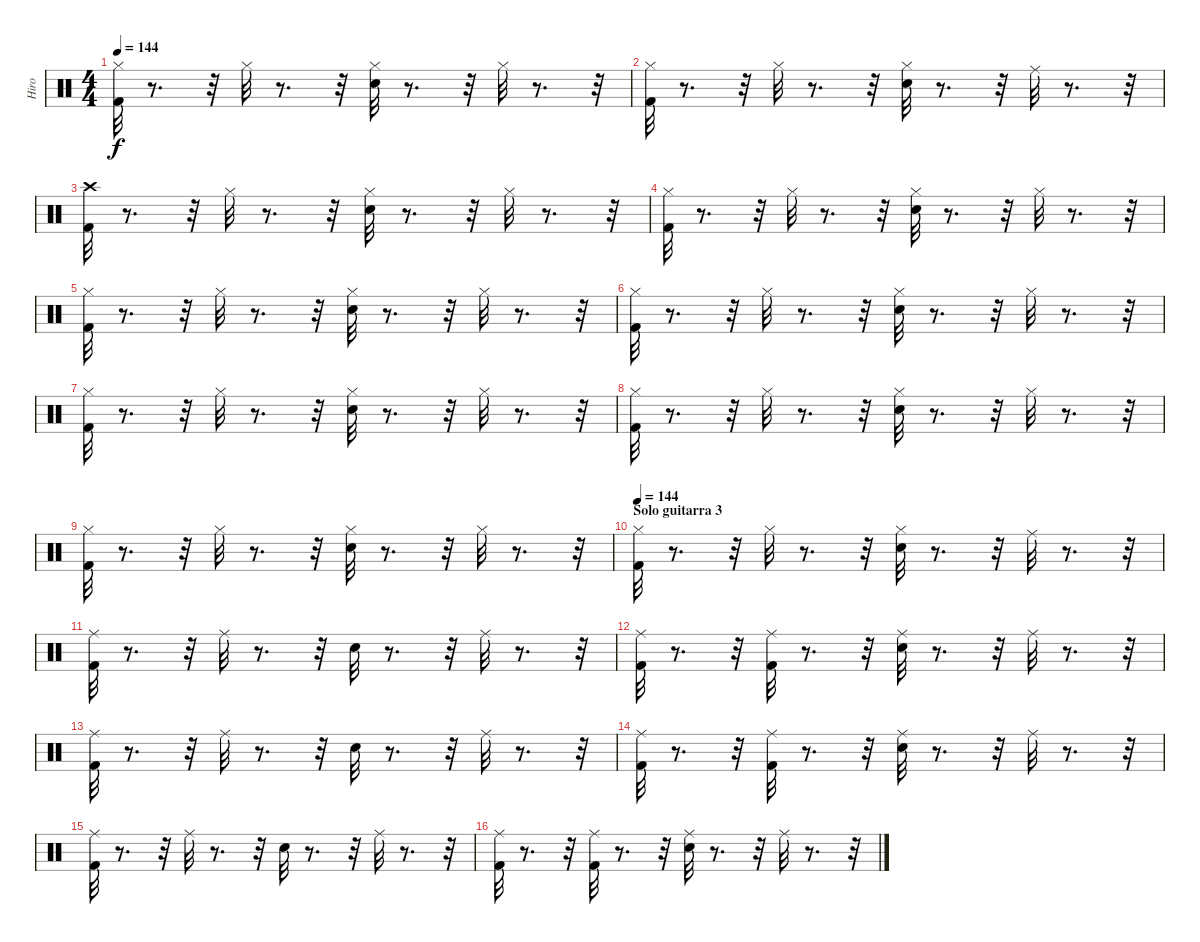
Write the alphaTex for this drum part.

\track ("Hiro" "Hiro") {instrument percussion}
\staff {score}
\articulation defaults
\ts (4 4)
\tempo 144
\clef neutral
\ks c
("Hi-Hat (closed)" "Kick (hit) 2").32{dy f} r.8{d} r.32 "Hi-Hat (closed)".32 r.8{d} r.32 ("Snare (hit) 2" "Hi-Hat (closed)").32 r.8{d} r.32 "Hi-Hat (closed)".32 r.8{d} r.32 |
("Kick (hit) 2" "Hi-Hat (closed)").32 r.8{d} r.32 "Hi-Hat (closed)".32 r.8{d} r.32 ("Snare (hit) 2" "Hi-Hat (closed)").32 r.8{d} r.32 "Ride (middle)".32 r.8{d} r.32 |
("Crash high (hit)" "Kick (hit) 2").32 r.8{d} r.32 "Hi-Hat (closed)".32 r.8{d} r.32 ("Snare (hit) 2" "Hi-Hat (closed)").32 r.8{d} r.32 "Hi-Hat (closed)".32 r.8{d} r.32 |
("Kick (hit) 2" "Hi-Hat (closed)").32 r.8{d} r.32 "Hi-Hat (closed)".32 r.8{d} r.32 ("Hi-Hat (closed)" "Snare (hit) 2").32 r.8{d} r.32 "Hi-Hat (closed)".32 r.8{d} r.32 |
("Hi-Hat (closed)" "Kick (hit) 2").32 r.8{d} r.32 "Hi-Hat (closed)".32 r.8{d} r.32 ("Snare (hit) 2" "Hi-Hat (closed)").32 r.8{d} r.32 "Hi-Hat (closed)".32 r.8{d} r.32 |
("Hi-Hat (closed)" "Kick (hit) 2").32 r.8{d} r.32 "Hi-Hat (closed)".32 r.8{d} r.32 ("Snare (hit) 2" "Hi-Hat (closed)").32 r.8{d} r.32 "Hi-Hat (closed)".32 r.8{d} r.32 |
("Kick (hit) 2" "Hi-Hat (closed)").32 r.8{d} r.32 "Hi-Hat (closed)".32 r.8{d} r.32 ("Hi-Hat (closed)" "Snare (hit) 2").32 r.8{d} r.32 "Hi-Hat (closed)".32 r.8{d} r.32 |
("Hi-Hat (closed)" "Kick (hit) 2").32 r.8{d} r.32 "Hi-Hat (closed)".32 r.8{d} r.32 ("Hi-Hat (closed)" "Snare (hit) 2").32 r.8{d} r.32 "Hi-Hat (closed)".32 r.8{d} r.32 |
("Hi-Hat (closed)" "Kick (hit) 2").32 r.8{d} r.32 "Hi-Hat (closed)".32 r.8{d} r.32 ("Snare (hit) 2" "Hi-Hat (closed)").32 r.8{d} r.32 "Hi-Hat (closed)".32 r.8{d} r.32 |
\section ("" "Solo guitarra 3")
\tempo 144
("Hi-Hat (closed)" "Kick (hit) 2").32 r.8{d} r.32 "Hi-Hat (closed)".32 r.8{d} r.32 ("Snare (hit) 2" "Hi-Hat (closed)").32 r.8{d} r.32 "Ride (middle)".32 r.8{d} r.32 |
("Kick (hit) 2" "Ride (middle)").32 r.8{d} r.32 "Ride (middle)".32 r.8{d} r.32 "Snare (hit) 2".32 r.8{d} r.32 "Ride (middle)".32 r.8{d} r.32 |
("Ride (middle)" "Kick (hit) 2").32 r.8{d} r.32 ("Ride (middle)" "Kick (hit) 2").32 r.8{d} r.32 ("Ride (middle)" "Snare (hit) 2").32 r.8{d} r.32 "Ride (middle)".32 r.8{d} r.32 |
("Ride (middle)" "Kick (hit) 2").32 r.8{d} r.32 "Ride (middle)".32 r.8{d} r.32 "Snare (hit) 2".32 r.8{d} r.32 "Ride (middle)".32 r.8{d} r.32 |
("Ride (middle)" "Kick (hit) 2").32 r.8{d} r.32 ("Ride (middle)" "Kick (hit) 2").32 r.8{d} r.32 ("Ride (middle)" "Snare (hit) 2").32 r.8{d} r.32 "Ride (middle)".32 r.8{d} r.32 |
("Ride (middle)" "Kick (hit) 2").32 r.8{d} r.32 "Ride (middle)".32 r.8{d} r.32 "Snare (hit) 2".32 r.8{d} r.32 "Ride (middle)".32 r.8{d} r.32 |
("Ride (middle)" "Kick (hit) 2").32 r.8{d} r.32 ("Ride (middle)" "Kick (hit) 2").32 r.8{d} r.32 ("Ride (middle)" "Snare (hit) 2").32 r.8{d} r.32 "Ride (middle)".32 r.8{d} r.32
